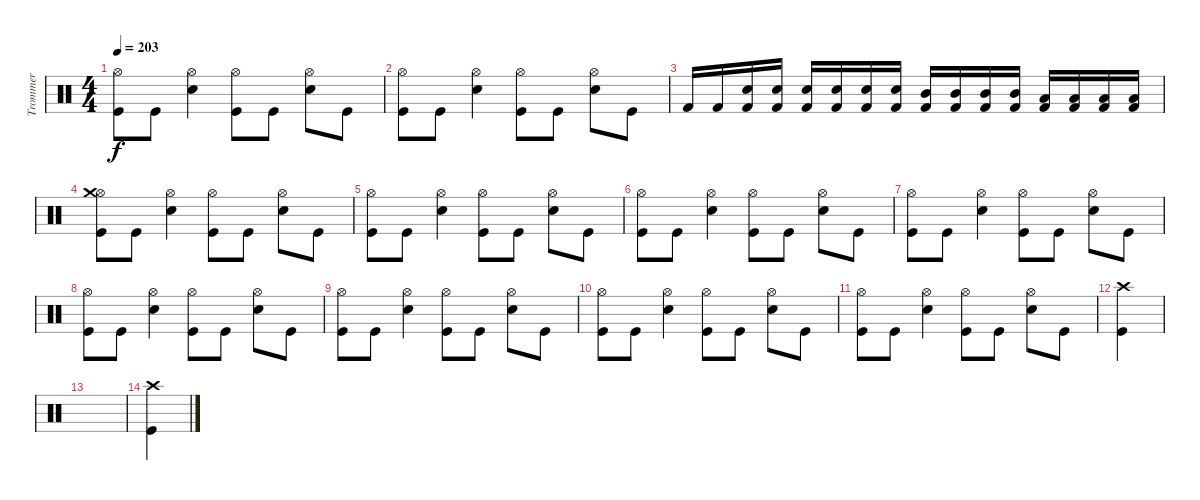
\track ("Trommer" "Trommer") {instrument percussion}
\staff {score}
\articulation defaults
\ts (4 4)
\tempo 203
\clef neutral
\ks c
("Hi-Hat (open)" "Kick (hit)").8{dy f} "Kick (hit)".8 ("Hi-Hat (open)" "Snare (hit) 2").4 ("Hi-Hat (open)" "Kick (hit)").8 "Kick (hit)".8 ("Snare (hit) 2" "Hi-Hat (open)").8 "Kick (hit)".8 |
("Hi-Hat (open)" "Kick (hit)").8 "Kick (hit)".8 ("Hi-Hat (open)" "Snare (hit) 2").4 ("Hi-Hat (open)" "Kick (hit)").8 "Kick (hit)".8 ("Snare (hit) 2" "Hi-Hat (open)").8 "Kick (hit)".8 |
"Kick (hit) 2".16 "Kick (hit) 2".16 ("Snare (hit) 2" "Kick (hit) 2").16 ("Snare (hit) 2" "Kick (hit) 2").16 ("Snare (hit) 2" "Kick (hit) 2").16 ("Snare (hit) 2" "Kick (hit) 2").16 ("Snare (hit) 2" "Kick (hit) 2").16 ("Snare (hit) 2" "Kick (hit) 2").16 ("Mid Tom (hit)" "Kick (hit) 2").16 ("Mid Tom (hit)" "Kick (hit) 2").16 ("Mid Tom (hit)" "Kick (hit) 2").16 ("Mid Tom (hit)" "Kick (hit) 2").16 ("Low Tom (hit)" "Kick (hit) 2").16 ("Low Tom (hit)" "Kick (hit) 2").16 ("Low Tom (hit)" "Kick (hit) 2").16 ("Low Tom (hit)" "Kick (hit) 2").16 |
("Hi-Hat (open)" "Kick (hit)" "Crash medium (hit)").8 "Kick (hit)".8 ("Hi-Hat (open)" "Snare (hit) 2").4 ("Hi-Hat (open)" "Kick (hit)").8 "Kick (hit)".8 ("Snare (hit) 2" "Hi-Hat (open)").8 "Kick (hit)".8 |
("Hi-Hat (open)" "Kick (hit)").8 "Kick (hit)".8 ("Hi-Hat (open)" "Snare (hit) 2").4 ("Hi-Hat (open)" "Kick (hit)").8 "Kick (hit)".8 ("Snare (hit) 2" "Hi-Hat (open)").8 "Kick (hit)".8 |
("Hi-Hat (open)" "Kick (hit)").8 "Kick (hit)".8 ("Hi-Hat (open)" "Snare (hit) 2").4 ("Hi-Hat (open)" "Kick (hit)").8 "Kick (hit)".8 ("Snare (hit) 2" "Hi-Hat (open)").8 "Kick (hit)".8 |
("Hi-Hat (open)" "Kick (hit)").8 "Kick (hit)".8 ("Hi-Hat (open)" "Snare (hit) 2").4 ("Hi-Hat (open)" "Kick (hit)").8 "Kick (hit)".8 ("Snare (hit) 2" "Hi-Hat (open)").8 "Kick (hit)".8 |
("Hi-Hat (open)" "Kick (hit)").8 "Kick (hit)".8 ("Hi-Hat (open)" "Snare (hit) 2").4 ("Hi-Hat (open)" "Kick (hit)").8 "Kick (hit)".8 ("Snare (hit) 2" "Hi-Hat (open)").8 "Kick (hit)".8 |
("Hi-Hat (open)" "Kick (hit)").8 "Kick (hit)".8 ("Hi-Hat (open)" "Snare (hit) 2").4 ("Hi-Hat (open)" "Kick (hit)").8 "Kick (hit)".8 ("Snare (hit) 2" "Hi-Hat (open)").8 "Kick (hit)".8 |
("Hi-Hat (open)" "Kick (hit)").8 "Kick (hit)".8 ("Hi-Hat (open)" "Snare (hit) 2").4 ("Hi-Hat (open)" "Kick (hit)").8 "Kick (hit)".8 ("Snare (hit) 2" "Hi-Hat (open)").8 "Kick (hit)".8 |
("Hi-Hat (open)" "Kick (hit)").8 "Kick (hit)".8 ("Hi-Hat (open)" "Snare (hit) 2").4 ("Hi-Hat (open)" "Kick (hit)").8 "Kick (hit)".8 ("Snare (hit) 2" "Hi-Hat (open)").8 "Kick (hit)".8 |
("Crash high (hit)" "Kick (hit)").4 |
|
("Crash high (hit)" "Kick (hit)").4
